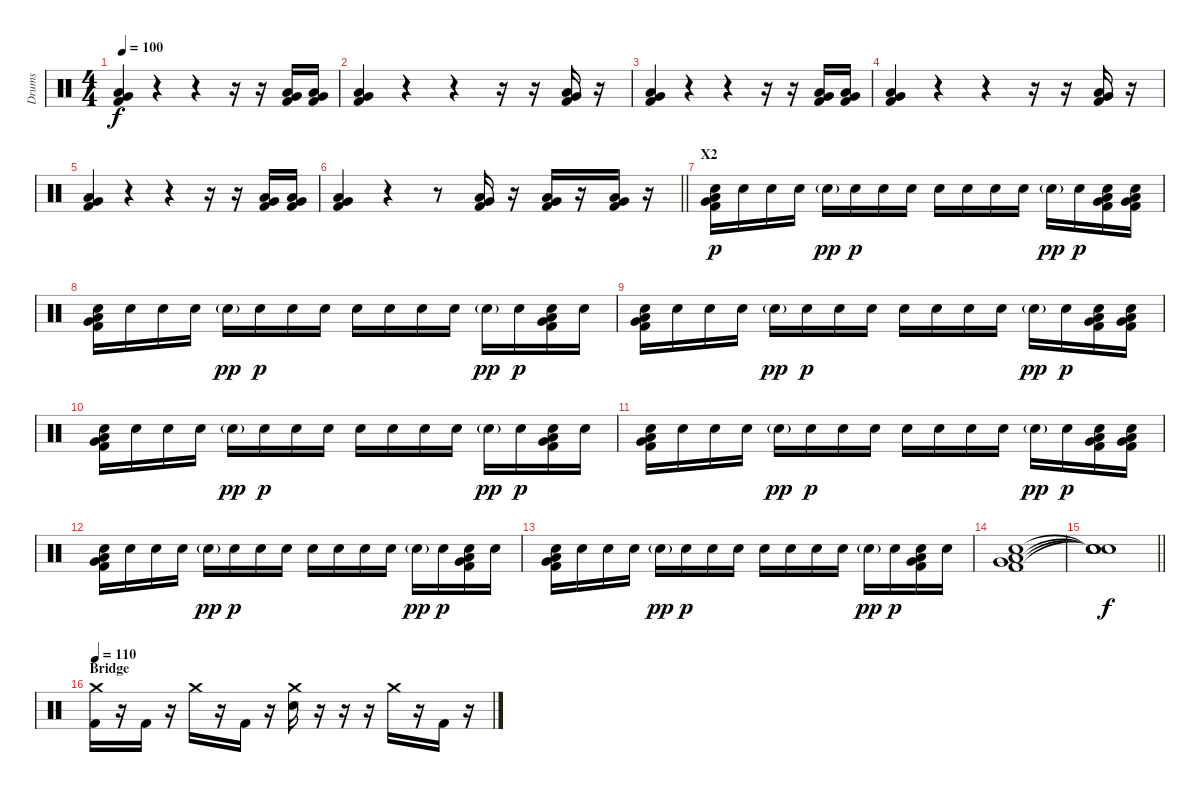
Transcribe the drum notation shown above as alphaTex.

\track ("Drums" "Drums") {instrument percussion}
\staff {score}
\articulation defaults
\ts (4 4)
\tempo 100
\clef neutral
\ks c
("Low Floor Tom (hit)" "Kick (hit) 2" "Very Low Tom (hit)").4{dy f} r.4 r.4 r.16 r.16 ("Low Floor Tom (hit)" "Kick (hit) 2" "Very Low Tom (hit)").16 ("Low Floor Tom (hit)" "Kick (hit) 2" "Very Low Tom (hit)").16 |
("Low Floor Tom (hit)" "Kick (hit) 2" "Very Low Tom (hit)").4 r.4 r.4 r.16 r.16 ("Low Floor Tom (hit)" "Kick (hit) 2" "Very Low Tom (hit)").16 r.16 |
("Low Floor Tom (hit)" "Kick (hit) 2" "Very Low Tom (hit)").4 r.4 r.4 r.16 r.16 ("Low Floor Tom (hit)" "Kick (hit) 2" "Very Low Tom (hit)").16 ("Low Floor Tom (hit)" "Kick (hit) 2" "Very Low Tom (hit)").16 |
("Low Floor Tom (hit)" "Kick (hit) 2" "Very Low Tom (hit)").4 r.4 r.4 r.16 r.16 ("Low Floor Tom (hit)" "Kick (hit) 2" "Very Low Tom (hit)").16 r.16 |
("Low Floor Tom (hit)" "Kick (hit) 2" "Very Low Tom (hit)").4 r.4 r.4 r.16 r.16 ("Low Floor Tom (hit)" "Kick (hit) 2" "Very Low Tom (hit)").16 ("Low Floor Tom (hit)" "Kick (hit) 2" "Very Low Tom (hit)").16 |
\barLineRight lightlight
("Low Floor Tom (hit)" "Kick (hit) 2" "Very Low Tom (hit)").4 r.4 r.8 ("Low Floor Tom (hit)" "Kick (hit) 2" "Very Low Tom (hit)").16 r.16 ("Low Floor Tom (hit)" "Kick (hit) 2" "Very Low Tom (hit)").16 r.16 ("Low Floor Tom (hit)" "Kick (hit) 2" "Very Low Tom (hit)").16 r.16 |
\section ("" "X2")
("Electric Snare (hit)" "Kick (hit) 2" "Low Floor Tom (hit)" "Very Low Tom (hit)").16{dy p} "Electric Snare (hit)".16 "Electric Snare (hit)".16 "Electric Snare (hit)".16 "Electric Snare (hit)"{g}.16{dy pp} "Electric Snare (hit)".16{dy p} "Electric Snare (hit)".16 "Electric Snare (hit)".16 "Electric Snare (hit)".16 "Electric Snare (hit)".16 "Electric Snare (hit)".16 "Electric Snare (hit)".16 "Electric Snare (hit)"{g}.16{dy pp} "Electric Snare (hit)".16{dy p} ("Electric Snare (hit)" "Kick (hit) 2" "Low Floor Tom (hit)" "Very Low Tom (hit)").16 ("Electric Snare (hit)" "Kick (hit) 2" "Low Floor Tom (hit)" "Very Low Tom (hit)").16 |
("Electric Snare (hit)" "Kick (hit) 2" "Low Floor Tom (hit)" "Very Low Tom (hit)").16 "Electric Snare (hit)".16 "Electric Snare (hit)".16 "Electric Snare (hit)".16 "Electric Snare (hit)"{g}.16{dy pp} "Electric Snare (hit)".16{dy p} "Electric Snare (hit)".16 "Electric Snare (hit)".16 "Electric Snare (hit)".16 "Electric Snare (hit)".16 "Electric Snare (hit)".16 "Electric Snare (hit)".16 "Electric Snare (hit)"{g}.16{dy pp} "Electric Snare (hit)".16{dy p} ("Electric Snare (hit)" "Kick (hit) 2" "Low Floor Tom (hit)" "Very Low Tom (hit)").16 "Electric Snare (hit)".16 |
("Electric Snare (hit)" "Kick (hit) 2" "Low Floor Tom (hit)" "Very Low Tom (hit)").16 "Electric Snare (hit)".16 "Electric Snare (hit)".16 "Electric Snare (hit)".16 "Electric Snare (hit)"{g}.16{dy pp} "Electric Snare (hit)".16{dy p} "Electric Snare (hit)".16 "Electric Snare (hit)".16 "Electric Snare (hit)".16 "Electric Snare (hit)".16 "Electric Snare (hit)".16 "Electric Snare (hit)".16 "Electric Snare (hit)"{g}.16{dy pp} "Electric Snare (hit)".16{dy p} ("Electric Snare (hit)" "Kick (hit) 2" "Low Floor Tom (hit)" "Very Low Tom (hit)").16 ("Electric Snare (hit)" "Kick (hit) 2" "Low Floor Tom (hit)" "Very Low Tom (hit)").16 |
("Electric Snare (hit)" "Kick (hit) 2" "Low Floor Tom (hit)" "Very Low Tom (hit)").16 "Electric Snare (hit)".16 "Electric Snare (hit)".16 "Electric Snare (hit)".16 "Electric Snare (hit)"{g}.16{dy pp} "Electric Snare (hit)".16{dy p} "Electric Snare (hit)".16 "Electric Snare (hit)".16 "Electric Snare (hit)".16 "Electric Snare (hit)".16 "Electric Snare (hit)".16 "Electric Snare (hit)".16 "Electric Snare (hit)"{g}.16{dy pp} "Electric Snare (hit)".16{dy p} ("Electric Snare (hit)" "Kick (hit) 2" "Low Floor Tom (hit)" "Very Low Tom (hit)").16 "Electric Snare (hit)".16 |
("Electric Snare (hit)" "Kick (hit) 2" "Low Floor Tom (hit)" "Very Low Tom (hit)").16 "Electric Snare (hit)".16 "Electric Snare (hit)".16 "Electric Snare (hit)".16 "Electric Snare (hit)"{g}.16{dy pp} "Electric Snare (hit)".16{dy p} "Electric Snare (hit)".16 "Electric Snare (hit)".16 "Electric Snare (hit)".16 "Electric Snare (hit)".16 "Electric Snare (hit)".16 "Electric Snare (hit)".16 "Electric Snare (hit)"{g}.16{dy pp} "Electric Snare (hit)".16{dy p} ("Electric Snare (hit)" "Kick (hit) 2" "Low Floor Tom (hit)" "Very Low Tom (hit)").16 ("Electric Snare (hit)" "Kick (hit) 2" "Low Floor Tom (hit)" "Very Low Tom (hit)").16 |
("Electric Snare (hit)" "Kick (hit) 2" "Low Floor Tom (hit)" "Very Low Tom (hit)").16 "Electric Snare (hit)".16 "Electric Snare (hit)".16 "Electric Snare (hit)".16 "Electric Snare (hit)"{g}.16{dy pp} "Electric Snare (hit)".16{dy p} "Electric Snare (hit)".16 "Electric Snare (hit)".16 "Electric Snare (hit)".16 "Electric Snare (hit)".16 "Electric Snare (hit)".16 "Electric Snare (hit)".16 "Electric Snare (hit)"{g}.16{dy pp} "Electric Snare (hit)".16{dy p} ("Electric Snare (hit)" "Kick (hit) 2" "Low Floor Tom (hit)" "Very Low Tom (hit)").16 "Electric Snare (hit)".16 |
("Electric Snare (hit)" "Kick (hit) 2" "Low Floor Tom (hit)" "Very Low Tom (hit)").16 "Electric Snare (hit)".16 "Electric Snare (hit)".16 "Electric Snare (hit)".16 "Electric Snare (hit)"{g}.16{dy pp} "Electric Snare (hit)".16{dy p} "Electric Snare (hit)".16 "Electric Snare (hit)".16 "Electric Snare (hit)".16 "Electric Snare (hit)".16 "Electric Snare (hit)".16 "Electric Snare (hit)".16 "Electric Snare (hit)"{g}.16{dy pp} "Electric Snare (hit)".16{dy p} ("Electric Snare (hit)" "Kick (hit) 2" "Low Floor Tom (hit)" "Very Low Tom (hit)").16 "Electric Snare (hit)".16 |
("Electric Snare (hit)" "Kick (hit) 2" "Low Floor Tom (hit)" "Very Low Tom (hit)").1 |
\barLineRight lightlight
("Snare (hit)"{t} "Snare (hit)"{t} "Snare (hit)"{t} "Snare (hit)"{t}).1{dy f} |
\section ("" "Bridge")
\tempo 110
("Crash medium (hit)" "Kick (hit) 2").16 r.16 "Kick (hit) 2".16 r.16 "Crash medium (hit)".16 r.16 "Kick (hit) 2".16 r.16 ("Crash medium (hit)" "Electric Snare (hit)").16 r.16 r.16 r.16 "Crash medium (hit)".16 r.16 "Kick (hit) 2".16 r.16
